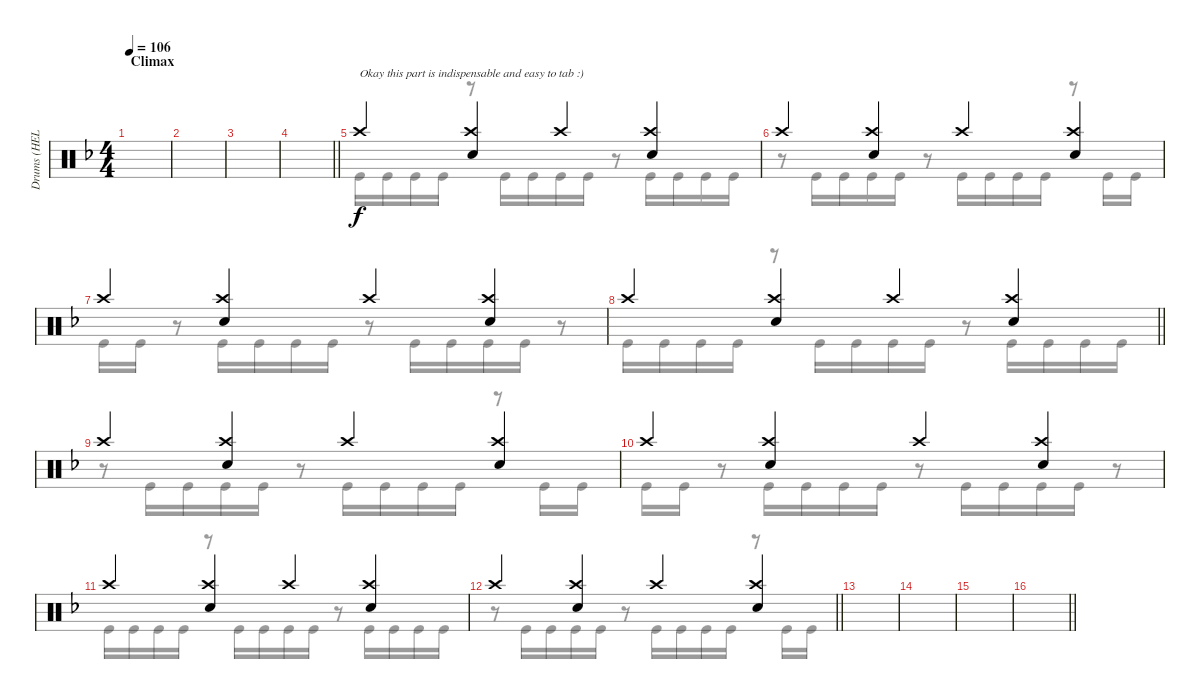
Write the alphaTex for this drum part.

\track ("Drums (HELP!)" "Drums (HEL") {instrument percussion}
\staff {score}
\articulation defaults
\voice
\ts (4 4)
\section ("" "Climax")
\tempo 106
\clef neutral
\ks dminor
|
|
|
\barLineRight lightlight
|
"Crash high (hit)".4{txt "Okay this part is indispensable and easy to tab :)"} ("Crash high (hit)" "Snare (hit) 2").4 "Crash high (hit)".4 ("Crash high (hit)" "Snare (hit) 2").4 |
"Crash high (hit)".4 ("Crash high (hit)" "Snare (hit) 2").4 "Crash high (hit)".4 ("Crash high (hit)" "Snare (hit) 2").4 |
"Crash high (hit)".4 ("Crash high (hit)" "Snare (hit) 2").4 "Crash high (hit)".4 ("Crash high (hit)" "Snare (hit) 2").4 |
\barLineRight lightlight "Crash high (hit)".4
("Crash high (hit)" "Snare (hit) 2").4 "Crash high (hit)".4 ("Crash high (hit)" "Snare (hit) 2").4 |
"Crash high (hit)".4 ("Crash high (hit)" "Snare (hit) 2").4 "Crash high (hit)".4 ("Crash high (hit)" "Snare (hit) 2").4 |
"Crash high (hit)".4 ("Crash high (hit)" "Snare (hit) 2").4 "Crash high (hit)".4 ("Crash high (hit)" "Snare (hit) 2").4 |
"Crash high (hit)".4 ("Crash high (hit)" "Snare (hit) 2").4 "Crash high (hit)".4 ("Crash high (hit)" "Snare (hit) 2").4 |
\barLineRight lightlight "Crash high (hit)".4
("Crash high (hit)" "Snare (hit) 2").4 "Crash high (hit)".4 ("Crash high (hit)" "Snare (hit) 2").4 |
|
|
|
\barLineRight lightlight
\voice
\clef neutral
\ottava regular
\simile none
\ks dminor
|
|
|
\barLineRight lightlight
|
"Kick (hit)".16 "Kick (hit)".16 "Kick (hit)".16 "Kick (hit)".16 r.8 "Kick (hit)".16 "Kick (hit)".16{beam merge} "Kick (hit)".16 "Kick (hit)".16 r.8{beam split} "Kick (hit)".16 "Kick (hit)".16{beam merge} "Kick (hit)".16 "Kick (hit)".16 |
r.8 "Kick (hit)".16 "Kick (hit)".16{beam merge} "Kick (hit)".16 "Kick (hit)".16 r.8 "Kick (hit)".16 "Kick (hit)".16 "Kick (hit)".16 "Kick (hit)".16 r.8 "Kick (hit)".16 "Kick (hit)".16 |
"Kick (hit)".16 "Kick (hit)".16 r.8 "Kick (hit)".16 "Kick (hit)".16 "Kick (hit)".16 "Kick (hit)".16 r.8 "Kick (hit)".16 "Kick (hit)".16{beam merge} "Kick (hit)".16 "Kick (hit)".16 r.8 |
\barLineRight lightlight "Kick (hit)".16 "Kick (hit)".16 "Kick (hit)".16 "Kick (hit)".16
r.8 "Kick (hit)".16 "Kick (hit)".16{beam merge} "Kick (hit)".16 "Kick (hit)".16 r.8{beam split} "Kick (hit)".16 "Kick (hit)".16{beam merge} "Kick (hit)".16 "Kick (hit)".16 |
r.8 "Kick (hit)".16 "Kick (hit)".16{beam merge} "Kick (hit)".16 "Kick (hit)".16 r.8 "Kick (hit)".16 "Kick (hit)".16 "Kick (hit)".16 "Kick (hit)".16 r.8 "Kick (hit)".16 "Kick (hit)".16 |
"Kick (hit)".16 "Kick (hit)".16 r.8 "Kick (hit)".16 "Kick (hit)".16 "Kick (hit)".16 "Kick (hit)".16 r.8 "Kick (hit)".16 "Kick (hit)".16{beam merge} "Kick (hit)".16 "Kick (hit)".16 r.8 |
"Kick (hit)".16 "Kick (hit)".16 "Kick (hit)".16 "Kick (hit)".16 r.8 "Kick (hit)".16 "Kick (hit)".16{beam merge} "Kick (hit)".16 "Kick (hit)".16 r.8{beam split} "Kick (hit)".16 "Kick (hit)".16{beam merge} "Kick (hit)".16 "Kick (hit)".16 |
\barLineRight lightlight
r.8 "Kick (hit)".16 "Kick (hit)".16{beam merge} "Kick (hit)".16 "Kick (hit)".16 r.8 "Kick (hit)".16 "Kick (hit)".16 "Kick (hit)".16 "Kick (hit)".16 r.8 "Kick (hit)".16 "Kick (hit)".16 |
|
|
|
\barLineRight lightlight
